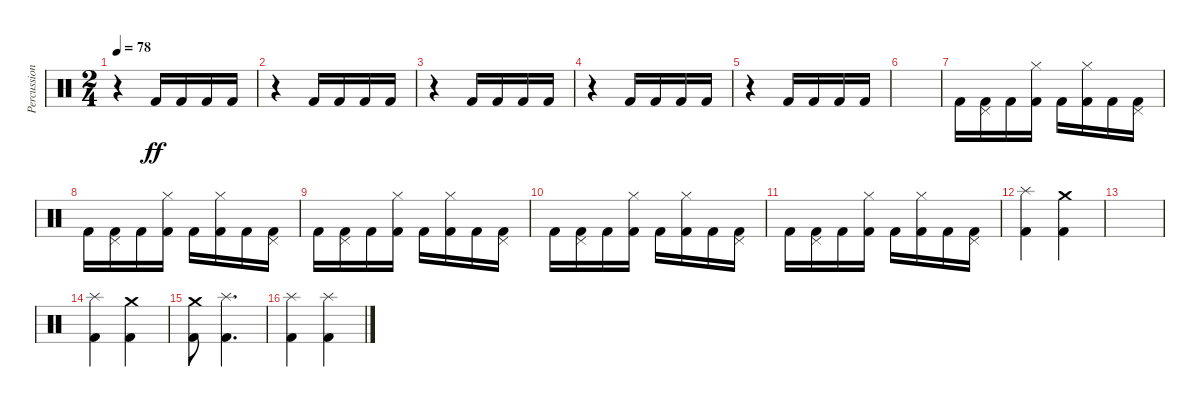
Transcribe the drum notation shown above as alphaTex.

\track ("Percussion" "Percussion") {instrument percussion}
\staff {score}
\articulation defaults
\ts (2 4)
\tempo 78
\clef neutral
\ks c
r.4{dy ff} "Kick (hit) 2".16 "Kick (hit) 2".16 "Kick (hit) 2".16 "Kick (hit) 2".16 |
r.4 "Kick (hit) 2".16 "Kick (hit) 2".16 "Kick (hit) 2".16 "Kick (hit) 2".16 |
r.4 "Kick (hit) 2".16 "Kick (hit) 2".16 "Kick (hit) 2".16 "Kick (hit) 2".16 |
r.4 "Kick (hit) 2".16 "Kick (hit) 2".16 "Kick (hit) 2".16 "Kick (hit) 2".16 |
r.4 "Kick (hit) 2".16 "Kick (hit) 2".16 "Kick (hit) 2".16 "Kick (hit) 2".16 |
|
"Kick (hit) 2".16 ("Kick (hit) 2" "Pedal Hi-Hat (hit)").16 "Kick (hit) 2".16 ("Kick (hit) 2" "Hi-Hat (closed)").16 "Kick (hit) 2".16 ("Kick (hit) 2" "Hi-Hat (closed)").16 "Kick (hit) 2".16 ("Kick (hit) 2" "Pedal Hi-Hat (hit)").16 |
"Kick (hit) 2".16 ("Kick (hit) 2" "Pedal Hi-Hat (hit)").16 "Kick (hit) 2".16 ("Kick (hit) 2" "Hi-Hat (closed)").16 "Kick (hit) 2".16 ("Kick (hit) 2" "Hi-Hat (closed)").16 "Kick (hit) 2".16 ("Kick (hit) 2" "Pedal Hi-Hat (hit)").16 |
"Kick (hit) 2".16 ("Kick (hit) 2" "Pedal Hi-Hat (hit)").16 "Kick (hit) 2".16 ("Kick (hit) 2" "Hi-Hat (closed)").16 "Kick (hit) 2".16 ("Kick (hit) 2" "Hi-Hat (closed)").16 "Kick (hit) 2".16 ("Kick (hit) 2" "Pedal Hi-Hat (hit)").16 |
"Kick (hit) 2".16 ("Kick (hit) 2" "Pedal Hi-Hat (hit)").16 "Kick (hit) 2".16 ("Kick (hit) 2" "Hi-Hat (closed)").16 "Kick (hit) 2".16 ("Kick (hit) 2" "Hi-Hat (closed)").16 "Kick (hit) 2".16 ("Kick (hit) 2" "Pedal Hi-Hat (hit)").16 |
"Kick (hit) 2".16 ("Kick (hit) 2" "Pedal Hi-Hat (hit)").16 "Kick (hit) 2".16 ("Kick (hit) 2" "Hi-Hat (closed)").16 "Kick (hit) 2".16 ("Kick (hit) 2" "Hi-Hat (closed)").16 "Kick (hit) 2".16 ("Kick (hit) 2" "Pedal Hi-Hat (hit)").16 |
("Kick (hit) 2" "Splash (hit)").4 ("Kick (hit) 2" "Crash medium (hit)").4 |
|
("Kick (hit) 2" "Splash (hit)").4 ("Kick (hit) 2" "Crash medium (hit)").4 |
("Kick (hit) 2" "Crash medium (hit)").8 ("Kick (hit) 2" "Splash (hit)").4{d} |
("Kick (hit) 2" "Splash (hit)").4 ("Kick (hit) 2" "Splash (hit)").4
